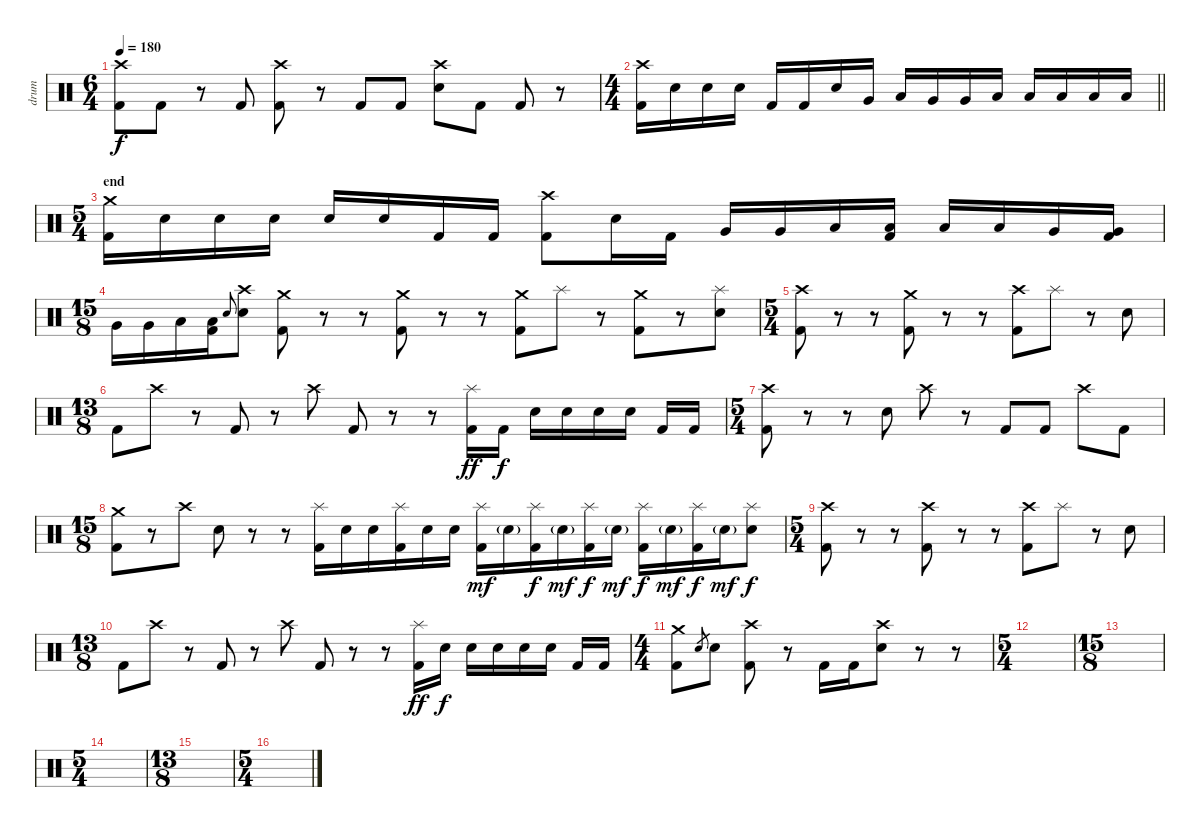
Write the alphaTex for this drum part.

\track ("drum" "drum") {instrument percussion}
\staff {score}
\articulation defaults
\ts (6 4)
\tempo 180
\clef neutral
\ks c
("Crash high (hit)" "Kick (hit) 2").8{dy f} "Kick (hit) 2".8 r.8 "Kick (hit) 2".8 ("Crash high (hit)" "Kick (hit) 2").8 r.8 "Kick (hit) 2".8 "Kick (hit) 2".8 ("Crash high (hit)" "Electric Snare (hit)").8 "Kick (hit) 2".8 "Kick (hit) 2".8 r.8 |
\ts (4 4)
\barLineRight lightlight
("Crash high (hit)" "Kick (hit) 2").16 "Electric Snare (hit)".16 "Electric Snare (hit)".16 "Electric Snare (hit)".16 "Kick (hit) 2".16 "Kick (hit) 2".16 "Electric Snare (hit)".16 "Very Low Tom (hit)".16 "Low Tom (hit)".16 "Very Low Tom (hit)".16 "Very Low Tom (hit)".16 "Low Floor Tom (hit)".16 "Low Floor Tom (hit)".16 "Low Floor Tom (hit)".16 "Low Tom (hit)".16 "Low Tom (hit)".16 |
\ts (5 4)
\section ("" "end")
("Crash medium (hit)" "Kick (hit) 2").16 "Electric Snare (hit)".16 "Electric Snare (hit)".16 "Electric Snare (hit)".16 "Electric Snare (hit)".16 "Electric Snare (hit)".16 "Kick (hit) 2".16 "Kick (hit) 2".16 ("Crash high (hit)" "Kick (hit) 2").8 "Electric Snare (hit)".16 "Kick (hit) 2".16 "Very Low Tom (hit)".16 "Very Low Tom (hit)".16 "Low Floor Tom (hit)".16 ("Low Floor Tom (hit)" "Kick (hit) 2").16 "Low Tom (hit)".16 "Low Tom (hit)".16 "Very Low Tom (hit)".16 ("Very Low Tom (hit)" "Kick (hit) 2").16 |
\ts (15 8)
"Very Low Tom (hit)".16 "Very Low Tom (hit)".16 "Low Floor Tom (hit)".16 ("Low Floor Tom (hit)" "Kick (hit) 2").16 "Electric Snare (hit)".8{gr onbeat} ("Crash high (hit)" "Electric Snare (hit)").8 ("Crash medium (hit)" "Kick (hit) 2").8 r.8 r.8 ("Crash medium (hit)" "Kick (hit) 2").8 r.8 r.8 ("Crash medium (hit)" "Kick (hit) 2").8 "Splash (hit)".8 r.8 ("Crash medium (hit)" "Kick (hit) 2").8 r.8 ("Splash (hit)" "Electric Snare (hit)").8 |
\ts (5 4)
("Crash high (hit)" "Kick (hit) 2").8 r.8 r.8 ("Crash medium (hit)" "Kick (hit) 2").8 r.8 r.8 ("Crash high (hit)" "Kick (hit) 2").8 "Splash (hit)".8 r.8 "Electric Snare (hit)".8 |
\ts (13 8)
"Kick (hit) 2".8 "Crash high (hit)".8 r.8 "Kick (hit) 2".8 r.8 "Crash high (hit)".8 "Kick (hit) 2".8 r.8 r.8 ("Splash (hit)" "Kick (hit) 2").16{dy ff} "Kick (hit) 2".16{dy f} "Electric Snare (hit)".16 "Electric Snare (hit)".16 "Electric Snare (hit)".16 "Electric Snare (hit)".16 "Kick (hit) 2".16 "Kick (hit) 2".16 |
\ts (5 4)
("Crash high (hit)" "Kick (hit) 2").8 r.8 r.8 "Electric Snare (hit)".8 "Crash high (hit)".8 r.8 "Kick (hit) 2".8 "Kick (hit) 2".8 "Crash high (hit)".8 "Kick (hit) 2".8 |
\ts (15 8)
("Crash medium (hit)" "Kick (hit) 2").8 r.8 "Crash high (hit)".8 "Electric Snare (hit)".8 r.8 r.8 ("Splash (hit)" "Kick (hit) 2").16 "Electric Snare (hit)".16 "Electric Snare (hit)".16 ("Splash (hit)" "Kick (hit) 2").16 "Electric Snare (hit)".16 "Electric Snare (hit)".16 ("Splash (hit)" "Kick (hit) 2").16{dy mf} "Electric Snare (hit)"{g}.16 ("Splash (hit)" "Kick (hit) 2").16{dy f} "Electric Snare (hit)"{g}.16{dy mf} ("Splash (hit)" "Kick (hit) 2").16{dy f} "Electric Snare (hit)"{g}.16{dy mf} ("Splash (hit)" "Kick (hit) 2").16{dy f} "Electric Snare (hit)"{g}.16{dy mf} ("Splash (hit)" "Kick (hit) 2").16{dy f} "Electric Snare (hit)"{g}.16{dy mf} ("Splash (hit)" "Electric Snare (hit)").8{dy f} |
\ts (5 4)
("Crash high (hit)" "Kick (hit) 2").8 r.8 r.8 ("Crash high (hit)" "Kick (hit) 2").8 r.8 r.8 ("Crash high (hit)" "Kick (hit) 2").8 "Splash (hit)".8 r.8 "Electric Snare (hit)".8 |
\ts (13 8)
"Kick (hit) 2".8 "Crash high (hit)".8 r.8 "Kick (hit) 2".8 r.8 "Crash high (hit)".8 "Kick (hit) 2".8 r.8 r.8 ("Splash (hit)" "Kick (hit) 2").16{dy ff} "Electric Snare (hit)".16{dy f} "Electric Snare (hit)".16 "Electric Snare (hit)".16 "Electric Snare (hit)".16 "Electric Snare (hit)".16 "Kick (hit) 2".16 "Kick (hit) 2".16 |
\ts (4 4)
("Crash medium (hit)" "Kick (hit) 2").8 "Electric Snare (hit)".8{gr} "Electric Snare (hit)".8 ("Crash high (hit)" "Kick (hit) 2").8 r.8 "Kick (hit) 2".16 "Kick (hit) 2".16 ("Crash high (hit)" "Electric Snare (hit)").8 r.8 r.8 |
\ts (5 4)
|
\ts (15 8)
|
\ts (5 4)
|
\ts (13 8)
|
\ts (5 4)
